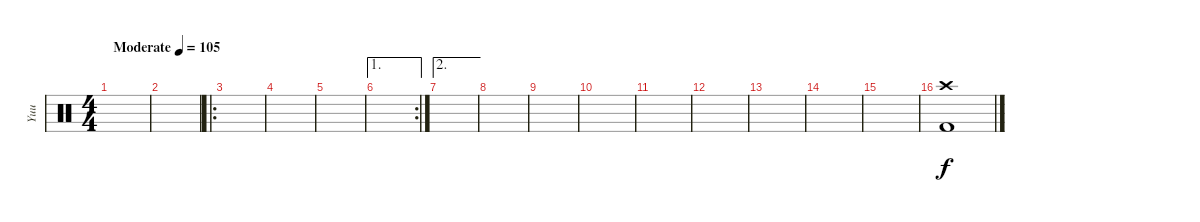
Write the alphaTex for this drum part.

\track ("Yuu" "Yuu") {instrument percussion}
\staff {score}
\articulation defaults
\ts (4 4)
\tempo (105 "Moderate")
\clef neutral
\ks c
|
|
\ro
|
|
|
\ae 1
\rc 2
|
\ae 2
|
|
|
|
|
|
|
|
|
("Crash high (hit)" "Kick (hit) 2").1
